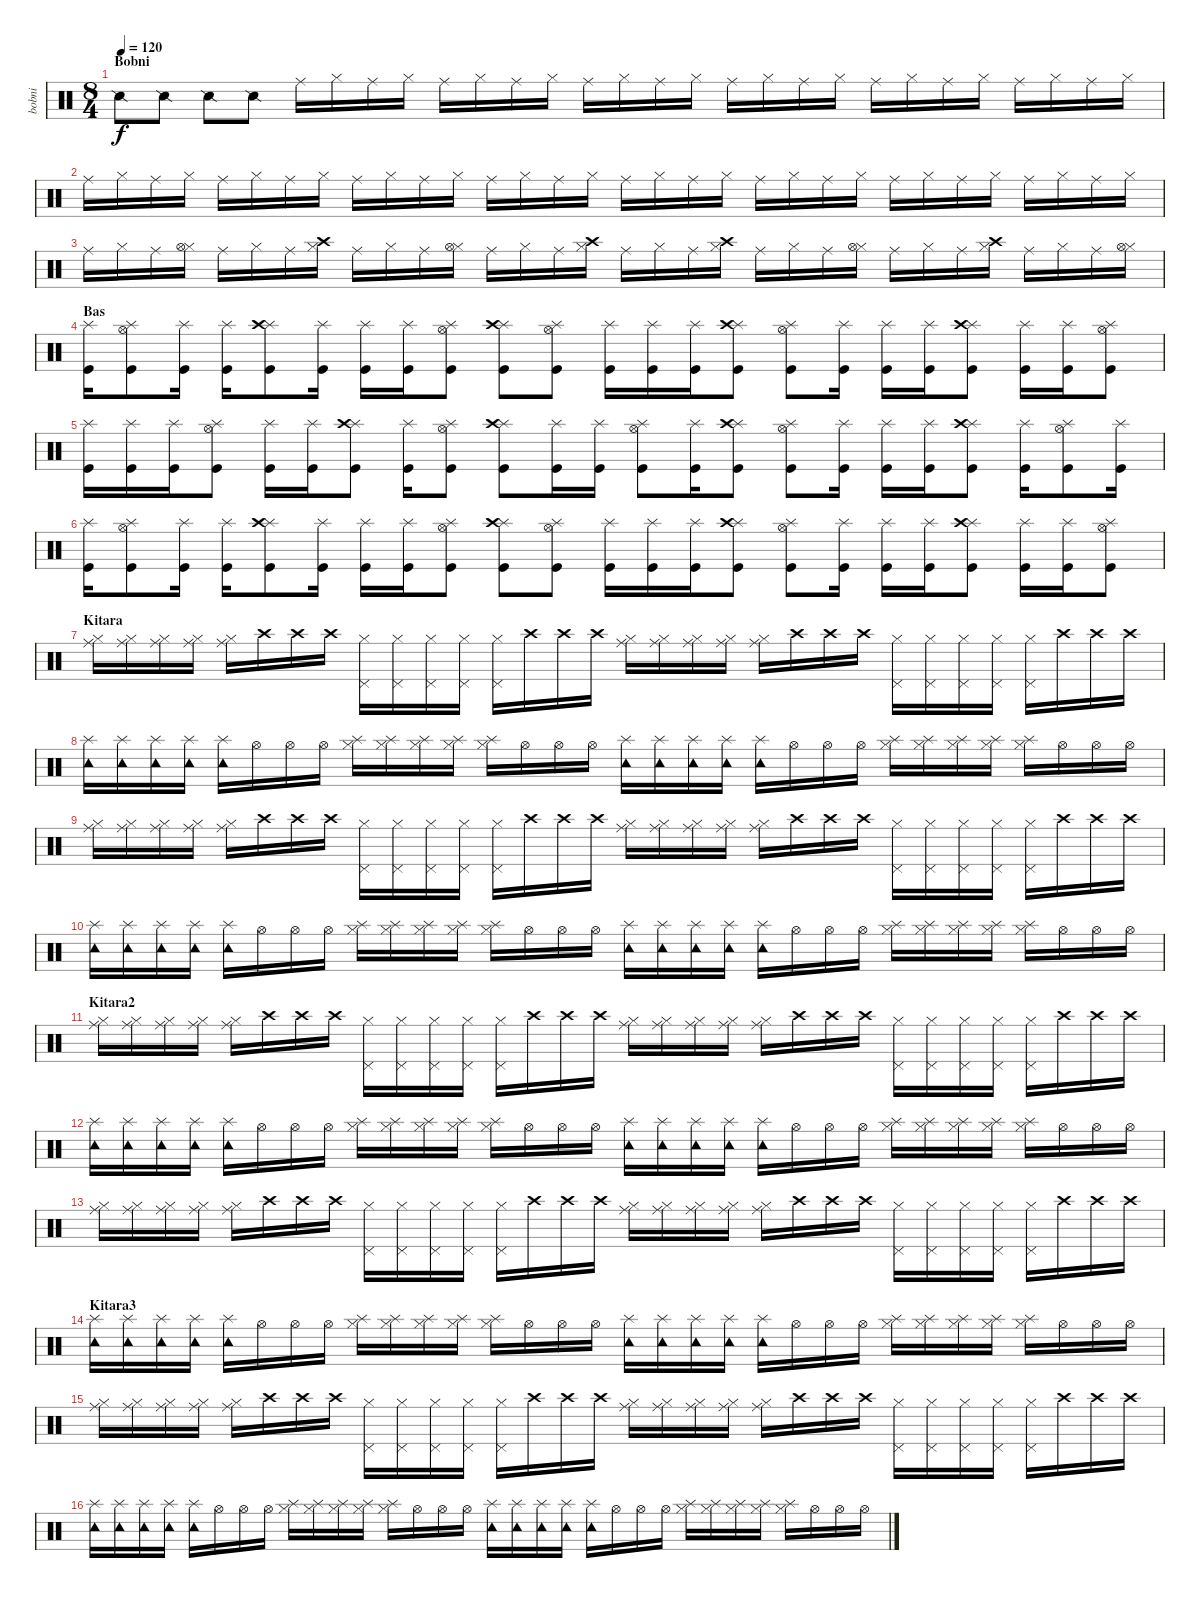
\track ("bobni" "bobni") {instrument percussion}
\staff {score}
\articulation defaults
\ts (8 4)
\section ("" "Bobni")
\tempo 120
\clef neutral
\ks c "Snare (side stick) 2".8{dy f} "Snare (side stick) 2".8 "Snare (side stick) 2".8 "Snare (side stick) 2".8 "Ride (middle)".16 "Hi-Hat (closed)".16 "Ride (middle)".16 "Hi-Hat (closed)".16 "Ride (middle)".16 "Hi-Hat (closed)".16 "Ride (middle)".16 "Hi-Hat (closed)".16 "Ride (middle)".16 "Hi-Hat (closed)".16 "Ride (middle)".16 "Hi-Hat (closed)".16 "Ride (middle)".16 "Hi-Hat (closed)".16 "Ride (middle)".16 "Hi-Hat (closed)".16 "Ride (middle)".16 "Hi-Hat (closed)".16 "Ride (middle)".16 "Hi-Hat (closed)".16 "Ride (middle)".16 "Hi-Hat (closed)".16 "Ride (middle)".16 "Hi-Hat (closed)".16
|
"Ride (middle)".16 "Hi-Hat (closed)".16 "Ride (middle)".16 "Hi-Hat (closed)".16 "Ride (middle)".16 "Hi-Hat (closed)".16 "Ride (middle)".16 "Hi-Hat (closed)".16 "Ride (middle)".16 "Hi-Hat (closed)".16 "Ride (middle)".16 "Hi-Hat (closed)".16 "Ride (middle)".16 "Hi-Hat (closed)".16 "Ride (middle)".16 "Hi-Hat (closed)".16 "Ride (middle)".16 "Hi-Hat (closed)".16 "Ride (middle)".16 "Hi-Hat (closed)".16 "Ride (middle)".16 "Hi-Hat (closed)".16 "Ride (middle)".16 "Hi-Hat (closed)".16 "Ride (middle)".16 "Hi-Hat (closed)".16 "Ride (middle)".16 "Hi-Hat (closed)".16 "Ride (middle)".16 "Hi-Hat (closed)".16 "Ride (middle)".16 "Hi-Hat (closed)".16 |
"Ride (middle)".16 "Hi-Hat (closed)".16 "Ride (middle)".16 ("Hi-Hat (closed)" "Hi-Hat (open)").16 "Ride (middle)".16 "Hi-Hat (closed)".16 "Ride (middle)".16 ("Hi-Hat (closed)" "Crash high (hit)").16 "Ride (middle)".16 "Hi-Hat (closed)".16 "Ride (middle)".16 ("Hi-Hat (closed)" "Hi-Hat (open)").16 "Ride (middle)".16 "Hi-Hat (closed)".16 "Ride (middle)".16 ("Hi-Hat (closed)" "Crash high (hit)").16 "Ride (middle)".16 "Hi-Hat (closed)".16 "Ride (middle)".16 ("Hi-Hat (closed)" "Crash high (hit)").16 "Ride (middle)".16 "Hi-Hat (closed)".16 "Ride (middle)".16 ("Hi-Hat (closed)" "Hi-Hat (open)").16 "Ride (middle)".16 "Hi-Hat (closed)".16 "Ride (middle)".16 ("Hi-Hat (closed)" "Crash high (hit)").16 "Ride (middle)".16 "Hi-Hat (closed)".16 "Ride (middle)".16 ("Hi-Hat (closed)" "Hi-Hat (open)").16 |
\section ("" "Bas")
("Kick (hit)" "Splash (hit)").16 ("Kick (hit)" "Splash (hit)" "Hi-Hat (open)").8 ("Kick (hit)" "Splash (hit)").16 ("Kick (hit)" "Splash (hit)").16 ("Kick (hit)" "Splash (hit)" "Crash high (hit)").8 ("Kick (hit)" "Splash (hit)").16 ("Kick (hit)" "Splash (hit)").16 ("Kick (hit)" "Splash (hit)").16 ("Kick (hit)" "Splash (hit)" "Hi-Hat (open)").8 ("Kick (hit)" "Splash (hit)" "Crash high (hit)").8 ("Kick (hit)" "Splash (hit)" "Hi-Hat (open)").8 ("Kick (hit)" "Splash (hit)").16 ("Kick (hit)" "Splash (hit)").16 ("Kick (hit)" "Splash (hit)").16 ("Kick (hit)" "Splash (hit)" "Crash high (hit)").8 ("Kick (hit)" "Splash (hit)" "Hi-Hat (open)").8 ("Kick (hit)" "Splash (hit)").16 ("Kick (hit)" "Splash (hit)").16 ("Kick (hit)" "Splash (hit)").16 ("Kick (hit)" "Splash (hit)" "Crash high (hit)").8 ("Kick (hit)" "Splash (hit)").16 ("Kick (hit)" "Splash (hit)").16 ("Kick (hit)" "Splash (hit)" "Hi-Hat (open)").8 |
("Kick (hit)" "Splash (hit)").16 ("Kick (hit)" "Splash (hit)").16 ("Kick (hit)" "Splash (hit)").16 ("Kick (hit)" "Splash (hit)" "Hi-Hat (open)").8 ("Kick (hit)" "Splash (hit)").16 ("Kick (hit)" "Splash (hit)").16 ("Kick (hit)" "Splash (hit)" "Crash high (hit)").8 ("Kick (hit)" "Splash (hit)").16 ("Kick (hit)" "Splash (hit)" "Hi-Hat (open)").8 ("Kick (hit)" "Splash (hit)" "Crash high (hit)").8 ("Kick (hit)" "Splash (hit)").16 ("Kick (hit)" "Splash (hit)").16 ("Kick (hit)" "Splash (hit)" "Hi-Hat (open)").8 ("Kick (hit)" "Splash (hit)").16 ("Kick (hit)" "Splash (hit)" "Crash high (hit)").8 ("Kick (hit)" "Splash (hit)" "Hi-Hat (open)").8 ("Kick (hit)" "Splash (hit)").16 ("Kick (hit)" "Splash (hit)").16 ("Kick (hit)" "Splash (hit)").16 ("Kick (hit)" "Splash (hit)" "Crash high (hit)").8 ("Kick (hit)" "Splash (hit)").16 ("Kick (hit)" "Splash (hit)" "Hi-Hat (open)").8 ("Kick (hit)" "Splash (hit)").16 |
("Kick (hit)" "Splash (hit)").16 ("Kick (hit)" "Splash (hit)" "Hi-Hat (open)").8 ("Kick (hit)" "Splash (hit)").16 ("Kick (hit)" "Splash (hit)").16 ("Kick (hit)" "Splash (hit)" "Crash high (hit)").8 ("Kick (hit)" "Splash (hit)").16 ("Kick (hit)" "Splash (hit)").16 ("Kick (hit)" "Splash (hit)").16 ("Kick (hit)" "Splash (hit)" "Hi-Hat (open)").8 ("Kick (hit)" "Splash (hit)" "Crash high (hit)").8 ("Kick (hit)" "Splash (hit)" "Hi-Hat (open)").8 ("Kick (hit)" "Splash (hit)").16 ("Kick (hit)" "Splash (hit)").16 ("Kick (hit)" "Splash (hit)").16 ("Kick (hit)" "Splash (hit)" "Crash high (hit)").8 ("Kick (hit)" "Splash (hit)" "Hi-Hat (open)").8 ("Kick (hit)" "Splash (hit)").16 ("Kick (hit)" "Splash (hit)").16 ("Kick (hit)" "Splash (hit)").16 ("Kick (hit)" "Splash (hit)" "Crash high (hit)").8 ("Kick (hit)" "Splash (hit)").16 ("Kick (hit)" "Splash (hit)").16 ("Kick (hit)" "Splash (hit)" "Hi-Hat (open)").8 |
\section ("" "Kitara")
("Hi-Hat (closed)" "Ride (middle)").16 ("Hi-Hat (closed)" "Ride (middle)").16 ("Hi-Hat (closed)" "Ride (middle)").16 ("Hi-Hat (closed)" "Ride (middle)").16 ("Hi-Hat (closed)" "Ride (middle)").16 "Crash high (hit)".16 "Crash high (hit)".16 "Crash high (hit)".16 ("Hi-Hat (closed)" "Pedal Hi-Hat (hit)").16 ("Hi-Hat (closed)" "Pedal Hi-Hat (hit)").16 ("Hi-Hat (closed)" "Pedal Hi-Hat (hit)").16 ("Hi-Hat (closed)" "Pedal Hi-Hat (hit)").16 ("Hi-Hat (closed)" "Pedal Hi-Hat (hit)").16 "Crash high (hit)".16 "Crash high (hit)".16 "Crash high (hit)".16 ("Hi-Hat (closed)" "Ride (middle)").16 ("Hi-Hat (closed)" "Ride (middle)").16 ("Hi-Hat (closed)" "Ride (middle)").16 ("Hi-Hat (closed)" "Ride (middle)").16 ("Hi-Hat (closed)" "Ride (middle)").16 "Crash high (hit)".16 "Crash high (hit)".16 "Crash high (hit)".16 ("Hi-Hat (closed)" "Pedal Hi-Hat (hit)").16 ("Hi-Hat (closed)" "Pedal Hi-Hat (hit)").16 ("Hi-Hat (closed)" "Pedal Hi-Hat (hit)").16 ("Hi-Hat (closed)" "Pedal Hi-Hat (hit)").16 ("Hi-Hat (closed)" "Pedal Hi-Hat (hit)").16 "Crash high (hit)".16 "Crash high (hit)".16 "Crash high (hit)".16 |
("Tambourine (hit)" "Splash (hit)").16 ("Tambourine (hit)" "Splash (hit)").16 ("Tambourine (hit)" "Splash (hit)").16 ("Tambourine (hit)" "Splash (hit)").16 ("Tambourine (hit)" "Splash (hit)").16 "Hi-Hat (open)".16 "Hi-Hat (open)".16 "Hi-Hat (open)".16 ("Hi-Hat (closed)" "Splash (hit)").16 ("Hi-Hat (closed)" "Splash (hit)").16 ("Hi-Hat (closed)" "Splash (hit)").16 ("Hi-Hat (closed)" "Splash (hit)").16 ("Hi-Hat (closed)" "Splash (hit)").16 "Hi-Hat (open)".16 "Hi-Hat (open)".16 "Hi-Hat (open)".16 ("Tambourine (hit)" "Splash (hit)").16 ("Tambourine (hit)" "Splash (hit)").16 ("Tambourine (hit)" "Splash (hit)").16 ("Tambourine (hit)" "Splash (hit)").16 ("Tambourine (hit)" "Splash (hit)").16 "Hi-Hat (open)".16 "Hi-Hat (open)".16 "Hi-Hat (open)".16 ("Hi-Hat (closed)" "Splash (hit)").16 ("Hi-Hat (closed)" "Splash (hit)").16 ("Hi-Hat (closed)" "Splash (hit)").16 ("Hi-Hat (closed)" "Splash (hit)").16 ("Hi-Hat (closed)" "Splash (hit)").16 "Hi-Hat (open)".16 "Hi-Hat (open)".16 "Hi-Hat (open)".16 |
("Hi-Hat (closed)" "Ride (middle)").16 ("Hi-Hat (closed)" "Ride (middle)").16 ("Hi-Hat (closed)" "Ride (middle)").16 ("Hi-Hat (closed)" "Ride (middle)").16 ("Hi-Hat (closed)" "Ride (middle)").16 "Crash high (hit)".16 "Crash high (hit)".16 "Crash high (hit)".16 ("Hi-Hat (closed)" "Pedal Hi-Hat (hit)").16 ("Hi-Hat (closed)" "Pedal Hi-Hat (hit)").16 ("Hi-Hat (closed)" "Pedal Hi-Hat (hit)").16 ("Hi-Hat (closed)" "Pedal Hi-Hat (hit)").16 ("Hi-Hat (closed)" "Pedal Hi-Hat (hit)").16 "Crash high (hit)".16 "Crash high (hit)".16 "Crash high (hit)".16 ("Hi-Hat (closed)" "Ride (middle)").16 ("Hi-Hat (closed)" "Ride (middle)").16 ("Hi-Hat (closed)" "Ride (middle)").16 ("Hi-Hat (closed)" "Ride (middle)").16 ("Hi-Hat (closed)" "Ride (middle)").16 "Crash high (hit)".16 "Crash high (hit)".16 "Crash high (hit)".16 ("Hi-Hat (closed)" "Pedal Hi-Hat (hit)").16 ("Hi-Hat (closed)" "Pedal Hi-Hat (hit)").16 ("Hi-Hat (closed)" "Pedal Hi-Hat (hit)").16 ("Hi-Hat (closed)" "Pedal Hi-Hat (hit)").16 ("Hi-Hat (closed)" "Pedal Hi-Hat (hit)").16 "Crash high (hit)".16 "Crash high (hit)".16 "Crash high (hit)".16 |
("Tambourine (hit)" "Splash (hit)").16 ("Tambourine (hit)" "Splash (hit)").16 ("Tambourine (hit)" "Splash (hit)").16 ("Tambourine (hit)" "Splash (hit)").16 ("Tambourine (hit)" "Splash (hit)").16 "Hi-Hat (open)".16 "Hi-Hat (open)".16 "Hi-Hat (open)".16 ("Hi-Hat (closed)" "Splash (hit)").16 ("Hi-Hat (closed)" "Splash (hit)").16 ("Hi-Hat (closed)" "Splash (hit)").16 ("Hi-Hat (closed)" "Splash (hit)").16 ("Hi-Hat (closed)" "Splash (hit)").16 "Hi-Hat (open)".16 "Hi-Hat (open)".16 "Hi-Hat (open)".16 ("Tambourine (hit)" "Splash (hit)").16 ("Tambourine (hit)" "Splash (hit)").16 ("Tambourine (hit)" "Splash (hit)").16 ("Tambourine (hit)" "Splash (hit)").16 ("Tambourine (hit)" "Splash (hit)").16 "Hi-Hat (open)".16 "Hi-Hat (open)".16 "Hi-Hat (open)".16 ("Hi-Hat (closed)" "Splash (hit)").16 ("Hi-Hat (closed)" "Splash (hit)").16 ("Hi-Hat (closed)" "Splash (hit)").16 ("Hi-Hat (closed)" "Splash (hit)").16 ("Hi-Hat (closed)" "Splash (hit)").16 "Hi-Hat (open)".16 "Hi-Hat (open)".16 "Hi-Hat (open)".16 |
\section ("" "Kitara2")
("Hi-Hat (closed)" "Ride (middle)").16 ("Hi-Hat (closed)" "Ride (middle)").16 ("Hi-Hat (closed)" "Ride (middle)").16 ("Hi-Hat (closed)" "Ride (middle)").16 ("Hi-Hat (closed)" "Ride (middle)").16 "Crash high (hit)".16 "Crash high (hit)".16 "Crash high (hit)".16 ("Hi-Hat (closed)" "Pedal Hi-Hat (hit)").16 ("Hi-Hat (closed)" "Pedal Hi-Hat (hit)").16 ("Hi-Hat (closed)" "Pedal Hi-Hat (hit)").16 ("Hi-Hat (closed)" "Pedal Hi-Hat (hit)").16 ("Hi-Hat (closed)" "Pedal Hi-Hat (hit)").16 "Crash high (hit)".16 "Crash high (hit)".16 "Crash high (hit)".16 ("Hi-Hat (closed)" "Ride (middle)").16 ("Hi-Hat (closed)" "Ride (middle)").16 ("Hi-Hat (closed)" "Ride (middle)").16 ("Hi-Hat (closed)" "Ride (middle)").16 ("Hi-Hat (closed)" "Ride (middle)").16 "Crash high (hit)".16 "Crash high (hit)".16 "Crash high (hit)".16 ("Hi-Hat (closed)" "Pedal Hi-Hat (hit)").16 ("Hi-Hat (closed)" "Pedal Hi-Hat (hit)").16 ("Hi-Hat (closed)" "Pedal Hi-Hat (hit)").16 ("Hi-Hat (closed)" "Pedal Hi-Hat (hit)").16 ("Hi-Hat (closed)" "Pedal Hi-Hat (hit)").16 "Crash high (hit)".16 "Crash high (hit)".16 "Crash high (hit)".16 |
("Tambourine (hit)" "Splash (hit)").16 ("Tambourine (hit)" "Splash (hit)").16 ("Tambourine (hit)" "Splash (hit)").16 ("Tambourine (hit)" "Splash (hit)").16 ("Tambourine (hit)" "Splash (hit)").16 "Hi-Hat (open)".16 "Hi-Hat (open)".16 "Hi-Hat (open)".16 ("Hi-Hat (closed)" "Splash (hit)").16 ("Hi-Hat (closed)" "Splash (hit)").16 ("Hi-Hat (closed)" "Splash (hit)").16 ("Hi-Hat (closed)" "Splash (hit)").16 ("Hi-Hat (closed)" "Splash (hit)").16 "Hi-Hat (open)".16 "Hi-Hat (open)".16 "Hi-Hat (open)".16 ("Tambourine (hit)" "Splash (hit)").16 ("Tambourine (hit)" "Splash (hit)").16 ("Tambourine (hit)" "Splash (hit)").16 ("Tambourine (hit)" "Splash (hit)").16 ("Tambourine (hit)" "Splash (hit)").16 "Hi-Hat (open)".16 "Hi-Hat (open)".16 "Hi-Hat (open)".16 ("Hi-Hat (closed)" "Splash (hit)").16 ("Hi-Hat (closed)" "Splash (hit)").16 ("Hi-Hat (closed)" "Splash (hit)").16 ("Hi-Hat (closed)" "Splash (hit)").16 ("Hi-Hat (closed)" "Splash (hit)").16 "Hi-Hat (open)".16 "Hi-Hat (open)".16 "Hi-Hat (open)".16 |
("Hi-Hat (closed)" "Ride (middle)").16 ("Hi-Hat (closed)" "Ride (middle)").16 ("Hi-Hat (closed)" "Ride (middle)").16 ("Hi-Hat (closed)" "Ride (middle)").16 ("Hi-Hat (closed)" "Ride (middle)").16 "Crash high (hit)".16 "Crash high (hit)".16 "Crash high (hit)".16 ("Hi-Hat (closed)" "Pedal Hi-Hat (hit)").16 ("Hi-Hat (closed)" "Pedal Hi-Hat (hit)").16 ("Hi-Hat (closed)" "Pedal Hi-Hat (hit)").16 ("Hi-Hat (closed)" "Pedal Hi-Hat (hit)").16 ("Hi-Hat (closed)" "Pedal Hi-Hat (hit)").16 "Crash high (hit)".16 "Crash high (hit)".16 "Crash high (hit)".16 ("Hi-Hat (closed)" "Ride (middle)").16 ("Hi-Hat (closed)" "Ride (middle)").16 ("Hi-Hat (closed)" "Ride (middle)").16 ("Hi-Hat (closed)" "Ride (middle)").16 ("Hi-Hat (closed)" "Ride (middle)").16 "Crash high (hit)".16 "Crash high (hit)".16 "Crash high (hit)".16 ("Hi-Hat (closed)" "Pedal Hi-Hat (hit)").16 ("Hi-Hat (closed)" "Pedal Hi-Hat (hit)").16 ("Hi-Hat (closed)" "Pedal Hi-Hat (hit)").16 ("Hi-Hat (closed)" "Pedal Hi-Hat (hit)").16 ("Hi-Hat (closed)" "Pedal Hi-Hat (hit)").16 "Crash high (hit)".16 "Crash high (hit)".16 "Crash high (hit)".16 |
\section ("" "Kitara3")
("Tambourine (hit)" "Splash (hit)").16 ("Tambourine (hit)" "Splash (hit)").16 ("Tambourine (hit)" "Splash (hit)").16 ("Tambourine (hit)" "Splash (hit)").16 ("Tambourine (hit)" "Splash (hit)").16 "Hi-Hat (open)".16 "Hi-Hat (open)".16 "Hi-Hat (open)".16 ("Hi-Hat (closed)" "Splash (hit)").16 ("Hi-Hat (closed)" "Splash (hit)").16 ("Hi-Hat (closed)" "Splash (hit)").16 ("Hi-Hat (closed)" "Splash (hit)").16 ("Hi-Hat (closed)" "Splash (hit)").16 "Hi-Hat (open)".16 "Hi-Hat (open)".16 "Hi-Hat (open)".16 ("Tambourine (hit)" "Splash (hit)").16 ("Tambourine (hit)" "Splash (hit)").16 ("Tambourine (hit)" "Splash (hit)").16 ("Tambourine (hit)" "Splash (hit)").16 ("Tambourine (hit)" "Splash (hit)").16 "Hi-Hat (open)".16 "Hi-Hat (open)".16 "Hi-Hat (open)".16 ("Hi-Hat (closed)" "Splash (hit)").16 ("Hi-Hat (closed)" "Splash (hit)").16 ("Hi-Hat (closed)" "Splash (hit)").16 ("Hi-Hat (closed)" "Splash (hit)").16 ("Hi-Hat (closed)" "Splash (hit)").16 "Hi-Hat (open)".16 "Hi-Hat (open)".16 "Hi-Hat (open)".16 |
("Hi-Hat (closed)" "Ride (middle)").16 ("Hi-Hat (closed)" "Ride (middle)").16 ("Hi-Hat (closed)" "Ride (middle)").16 ("Hi-Hat (closed)" "Ride (middle)").16 ("Hi-Hat (closed)" "Ride (middle)").16 "Crash high (hit)".16 "Crash high (hit)".16 "Crash high (hit)".16 ("Hi-Hat (closed)" "Pedal Hi-Hat (hit)").16 ("Hi-Hat (closed)" "Pedal Hi-Hat (hit)").16 ("Hi-Hat (closed)" "Pedal Hi-Hat (hit)").16 ("Hi-Hat (closed)" "Pedal Hi-Hat (hit)").16 ("Hi-Hat (closed)" "Pedal Hi-Hat (hit)").16 "Crash high (hit)".16 "Crash high (hit)".16 "Crash high (hit)".16 ("Hi-Hat (closed)" "Ride (middle)").16 ("Hi-Hat (closed)" "Ride (middle)").16 ("Hi-Hat (closed)" "Ride (middle)").16 ("Hi-Hat (closed)" "Ride (middle)").16 ("Hi-Hat (closed)" "Ride (middle)").16 "Crash high (hit)".16 "Crash high (hit)".16 "Crash high (hit)".16 ("Hi-Hat (closed)" "Pedal Hi-Hat (hit)").16 ("Hi-Hat (closed)" "Pedal Hi-Hat (hit)").16 ("Hi-Hat (closed)" "Pedal Hi-Hat (hit)").16 ("Hi-Hat (closed)" "Pedal Hi-Hat (hit)").16 ("Hi-Hat (closed)" "Pedal Hi-Hat (hit)").16 "Crash high (hit)".16 "Crash high (hit)".16 "Crash high (hit)".16 |
("Tambourine (hit)" "Splash (hit)").16 ("Tambourine (hit)" "Splash (hit)").16 ("Tambourine (hit)" "Splash (hit)").16 ("Tambourine (hit)" "Splash (hit)").16 ("Tambourine (hit)" "Splash (hit)").16 "Hi-Hat (open)".16 "Hi-Hat (open)".16 "Hi-Hat (open)".16 ("Hi-Hat (closed)" "Splash (hit)").16 ("Hi-Hat (closed)" "Splash (hit)").16 ("Hi-Hat (closed)" "Splash (hit)").16 ("Hi-Hat (closed)" "Splash (hit)").16 ("Hi-Hat (closed)" "Splash (hit)").16 "Hi-Hat (open)".16 "Hi-Hat (open)".16 "Hi-Hat (open)".16 ("Tambourine (hit)" "Splash (hit)").16 ("Tambourine (hit)" "Splash (hit)").16 ("Tambourine (hit)" "Splash (hit)").16 ("Tambourine (hit)" "Splash (hit)").16 ("Tambourine (hit)" "Splash (hit)").16 "Hi-Hat (open)".16 "Hi-Hat (open)".16 "Hi-Hat (open)".16 ("Hi-Hat (closed)" "Splash (hit)").16 ("Hi-Hat (closed)" "Splash (hit)").16 ("Hi-Hat (closed)" "Splash (hit)").16 ("Hi-Hat (closed)" "Splash (hit)").16 ("Hi-Hat (closed)" "Splash (hit)").16 "Hi-Hat (open)".16 "Hi-Hat (open)".16 "Hi-Hat (open)".16
